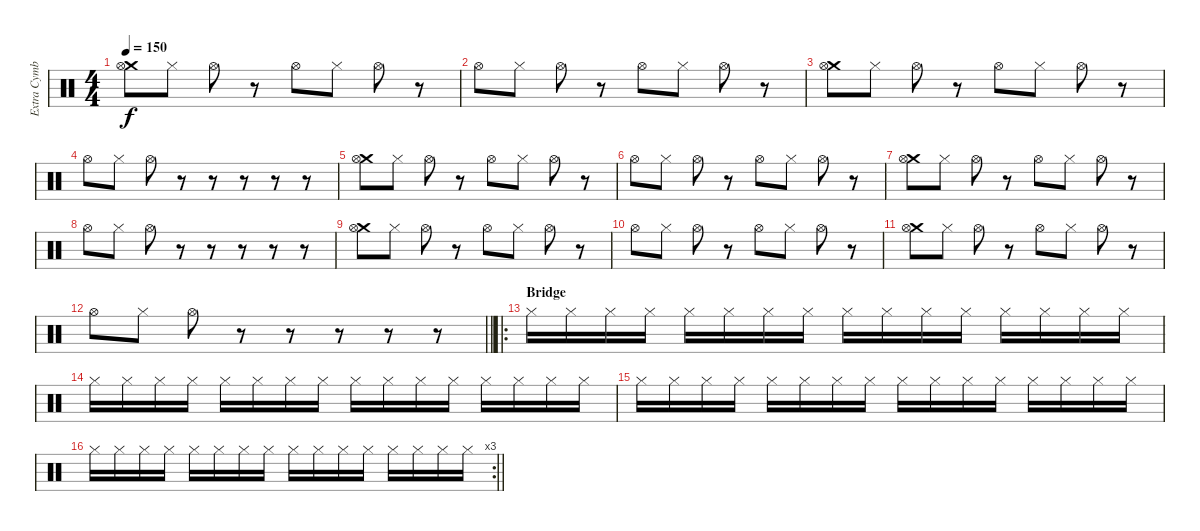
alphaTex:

\track ("Extra Cymbals" "Extra Cymb") {instrument percussion bank 255}
\staff {score}
\articulation defaults
\ts (4 4)
\tempo 150
\clef neutral
\ks c
("Crash medium (hit)" "Hi-Hat (open)").8{dy f} "Hi-Hat (closed)".8 "Hi-Hat (open)".8 r.8 "Hi-Hat (open)".8 "Hi-Hat (closed)".8 "Hi-Hat (open)".8 r.8 |
"Hi-Hat (open)".8 "Hi-Hat (closed)".8 "Hi-Hat (open)".8 r.8 "Hi-Hat (open)".8 "Hi-Hat (closed)".8 "Hi-Hat (open)".8 r.8 |
("Crash medium (hit)" "Hi-Hat (open)").8 "Hi-Hat (closed)".8 "Hi-Hat (open)".8 r.8 "Hi-Hat (open)".8 "Hi-Hat (closed)".8 "Hi-Hat (open)".8 r.8 |
"Hi-Hat (open)".8 "Hi-Hat (closed)".8 "Hi-Hat (open)".8 r.8 r.8 r.8 r.8 r.8 |
("Crash medium (hit)" "Hi-Hat (open)").8 "Hi-Hat (closed)".8 "Hi-Hat (open)".8 r.8 "Hi-Hat (open)".8 "Hi-Hat (closed)".8 "Hi-Hat (open)".8 r.8 |
"Hi-Hat (open)".8 "Hi-Hat (closed)".8 "Hi-Hat (open)".8 r.8 "Hi-Hat (open)".8 "Hi-Hat (closed)".8 "Hi-Hat (open)".8 r.8 |
("Crash medium (hit)" "Hi-Hat (open)").8 "Hi-Hat (closed)".8 "Hi-Hat (open)".8 r.8 "Hi-Hat (open)".8 "Hi-Hat (closed)".8 "Hi-Hat (open)".8 r.8 |
"Hi-Hat (open)".8 "Hi-Hat (closed)".8 "Hi-Hat (open)".8 r.8 r.8 r.8 r.8 r.8 |
("Crash medium (hit)" "Hi-Hat (open)").8 "Hi-Hat (closed)".8 "Hi-Hat (open)".8 r.8 "Hi-Hat (open)".8 "Hi-Hat (closed)".8 "Hi-Hat (open)".8 r.8 |
"Hi-Hat (open)".8 "Hi-Hat (closed)".8 "Hi-Hat (open)".8 r.8 "Hi-Hat (open)".8 "Hi-Hat (closed)".8 "Hi-Hat (open)".8 r.8 |
("Crash medium (hit)" "Hi-Hat (open)").8 "Hi-Hat (closed)".8 "Hi-Hat (open)".8 r.8 "Hi-Hat (open)".8 "Hi-Hat (closed)".8 "Hi-Hat (open)".8 r.8 |
\barLineRight lightlight "Hi-Hat (open)".8 "Hi-Hat (closed)".8 "Hi-Hat (open)".8
r.8 r.8 r.8 r.8 r.8 |
\ro
\section ("" "Bridge")
"Hi-Hat (closed)".16 "Hi-Hat (closed)".16 "Hi-Hat (closed)".16 "Hi-Hat (closed)".16 "Hi-Hat (closed)".16 "Hi-Hat (closed)".16 "Hi-Hat (closed)".16 "Hi-Hat (closed)".16 "Hi-Hat (closed)".16 "Hi-Hat (closed)".16 "Hi-Hat (closed)".16 "Hi-Hat (closed)".16 "Hi-Hat (closed)".16 "Hi-Hat (closed)".16 "Hi-Hat (closed)".16 "Hi-Hat (closed)".16 |
"Hi-Hat (closed)".16 "Hi-Hat (closed)".16 "Hi-Hat (closed)".16 "Hi-Hat (closed)".16 "Hi-Hat (closed)".16 "Hi-Hat (closed)".16 "Hi-Hat (closed)".16 "Hi-Hat (closed)".16 "Hi-Hat (closed)".16 "Hi-Hat (closed)".16 "Hi-Hat (closed)".16 "Hi-Hat (closed)".16 "Hi-Hat (closed)".16 "Hi-Hat (closed)".16 "Hi-Hat (closed)".16 "Hi-Hat (closed)".16 |
"Hi-Hat (closed)".16 "Hi-Hat (closed)".16 "Hi-Hat (closed)".16 "Hi-Hat (closed)".16 "Hi-Hat (closed)".16 "Hi-Hat (closed)".16 "Hi-Hat (closed)".16 "Hi-Hat (closed)".16 "Hi-Hat (closed)".16 "Hi-Hat (closed)".16 "Hi-Hat (closed)".16 "Hi-Hat (closed)".16 "Hi-Hat (closed)".16 "Hi-Hat (closed)".16 "Hi-Hat (closed)".16 "Hi-Hat (closed)".16 |
\rc 3
\barLineRight lightlight "Hi-Hat (closed)".16 "Hi-Hat (closed)".16 "Hi-Hat (closed)".16 "Hi-Hat (closed)".16 "Hi-Hat (closed)".16 "Hi-Hat (closed)".16 "Hi-Hat (closed)".16 "Hi-Hat (closed)".16 "Hi-Hat (closed)".16 "Hi-Hat (closed)".16 "Hi-Hat (closed)".16 "Hi-Hat (closed)".16 "Hi-Hat (closed)".16 "Hi-Hat (closed)".16 "Hi-Hat (closed)".16 "Hi-Hat (closed)".16
